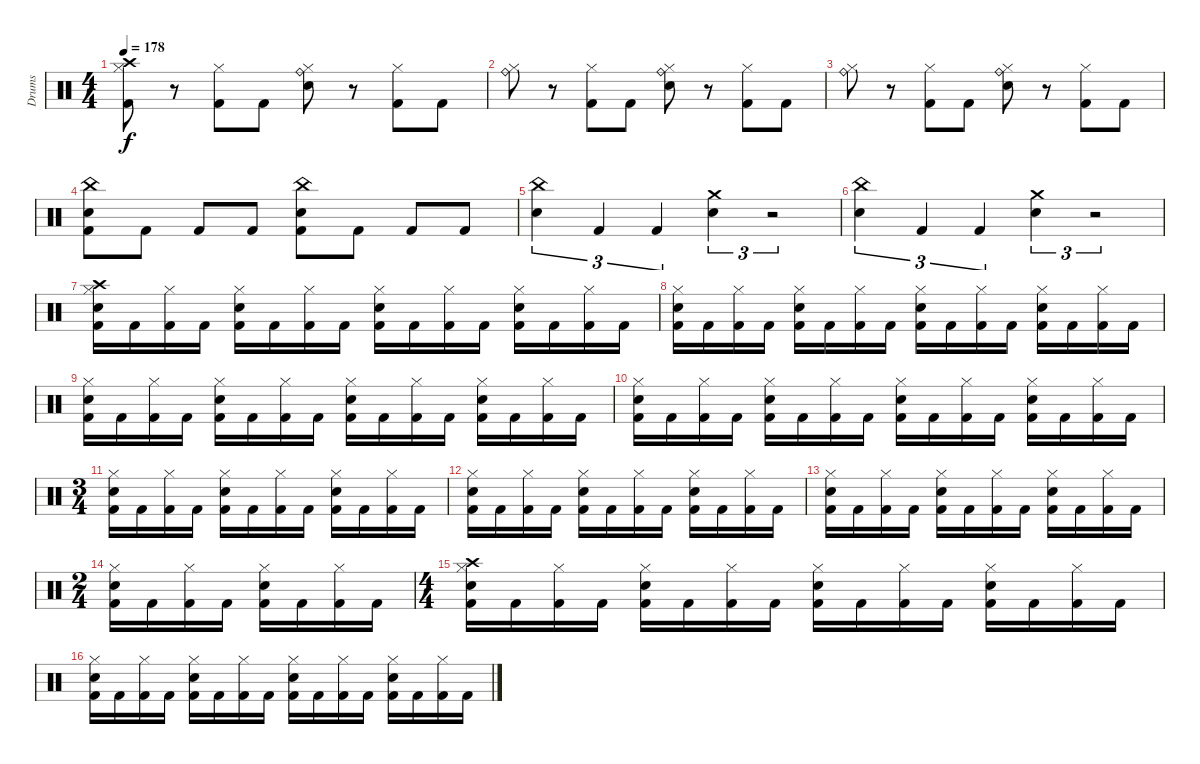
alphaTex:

\track ("Drums" "Drums") {instrument percussion}
\staff {score}
\articulation defaults
\ts (4 4)
\tempo 178
\clef neutral
\ks c
("Kick (hit) 2"{t} "Hi-Hat (closed)" "Crash high (hit)").8{dy f} r.8 ("Kick (hit) 2" "Hi-Hat (closed)").8 "Kick (hit) 2".8 ("Snare (hit) 2" "Hi-Hat (closed)" "Ride (bell)").8 r.8 ("Kick (hit) 2" "Hi-Hat (closed)").8 "Kick (hit) 2".8 |
("Hi-Hat (closed)" "Ride (bell)").8 r.8 ("Kick (hit) 2" "Hi-Hat (closed)").8 "Kick (hit) 2".8 ("Snare (hit) 2" "Hi-Hat (closed)" "Ride (bell)").8 r.8 ("Kick (hit) 2" "Hi-Hat (closed)").8 "Kick (hit) 2".8 |
("Hi-Hat (closed)" "Ride (bell)").8 r.8 ("Kick (hit) 2" "Hi-Hat (closed)").8 "Kick (hit) 2".8 ("Snare (hit) 2" "Hi-Hat (closed)" "Ride (bell)").8 r.8 ("Kick (hit) 2" "Hi-Hat (closed)").8 "Kick (hit) 2".8 |
("Kick (hit) 2" "Snare (hit) 2" "China (hit)").8 "Kick (hit) 2".8 "Kick (hit) 2".8 "Kick (hit) 2".8 ("Kick (hit) 2" "Snare (hit) 2" "China (hit)").8 "Kick (hit) 2".8 "Kick (hit) 2".8 "Kick (hit) 2".8 |
("Snare (hit) 2" "China (hit)").4{tu (3 2)} "Kick (hit) 2".4{tu (3 2)} "Kick (hit) 2".4{tu (3 2)} ("Snare (hit) 2" "Crash medium (hit)").4{tu (3 2)} r.2{tu (3 2)} |
("Snare (hit) 2" "China (hit)").4{tu (3 2)} "Kick (hit) 2".4{tu (3 2)} "Kick (hit) 2".4{tu (3 2)} ("Snare (hit) 2" "Crash medium (hit)").4{tu (3 2)} r.2{tu (3 2)} |
("Kick (hit) 2" "Snare (hit) 2" "Hi-Hat (closed)" "Crash high (hit)").16 "Kick (hit) 2".16 ("Kick (hit) 2" "Hi-Hat (closed)").16 "Kick (hit) 2".16 ("Kick (hit) 2" "Snare (hit) 2" "Hi-Hat (closed)").16 "Kick (hit) 2".16 ("Kick (hit) 2" "Hi-Hat (closed)").16 "Kick (hit) 2".16 ("Kick (hit) 2" "Snare (hit) 2" "Hi-Hat (closed)").16 "Kick (hit) 2".16 ("Kick (hit) 2" "Hi-Hat (closed)").16 "Kick (hit) 2".16 ("Kick (hit) 2" "Snare (hit) 2" "Hi-Hat (closed)").16 "Kick (hit) 2".16 ("Kick (hit) 2" "Hi-Hat (closed)").16 "Kick (hit) 2".16 |
("Kick (hit) 2" "Snare (hit) 2" "Hi-Hat (closed)").16 "Kick (hit) 2".16 ("Kick (hit) 2" "Hi-Hat (closed)").16 "Kick (hit) 2".16 ("Kick (hit) 2" "Snare (hit) 2" "Hi-Hat (closed)").16 "Kick (hit) 2".16 ("Kick (hit) 2" "Hi-Hat (closed)").16 "Kick (hit) 2".16 ("Kick (hit) 2" "Snare (hit) 2" "Hi-Hat (closed)").16 "Kick (hit) 2".16 ("Kick (hit) 2" "Hi-Hat (closed)").16 "Kick (hit) 2".16 ("Kick (hit) 2" "Snare (hit) 2" "Hi-Hat (closed)").16 "Kick (hit) 2".16 ("Kick (hit) 2" "Hi-Hat (closed)").16 "Kick (hit) 2".16 |
("Kick (hit) 2" "Snare (hit) 2" "Hi-Hat (closed)").16 "Kick (hit) 2".16 ("Kick (hit) 2" "Hi-Hat (closed)").16 "Kick (hit) 2".16 ("Kick (hit) 2" "Snare (hit) 2" "Hi-Hat (closed)").16 "Kick (hit) 2".16 ("Kick (hit) 2" "Hi-Hat (closed)").16 "Kick (hit) 2".16 ("Kick (hit) 2" "Snare (hit) 2" "Hi-Hat (closed)").16 "Kick (hit) 2".16 ("Kick (hit) 2" "Hi-Hat (closed)").16 "Kick (hit) 2".16 ("Kick (hit) 2" "Snare (hit) 2" "Hi-Hat (closed)").16 "Kick (hit) 2".16 ("Kick (hit) 2" "Hi-Hat (closed)").16 "Kick (hit) 2".16 |
("Kick (hit) 2" "Snare (hit) 2" "Hi-Hat (closed)").16 "Kick (hit) 2".16 ("Kick (hit) 2" "Hi-Hat (closed)").16 "Kick (hit) 2".16 ("Kick (hit) 2" "Snare (hit) 2" "Hi-Hat (closed)").16 "Kick (hit) 2".16 ("Kick (hit) 2" "Hi-Hat (closed)").16 "Kick (hit) 2".16 ("Kick (hit) 2" "Snare (hit) 2" "Hi-Hat (closed)").16 "Kick (hit) 2".16 ("Kick (hit) 2" "Hi-Hat (closed)").16 "Kick (hit) 2".16 ("Kick (hit) 2" "Snare (hit) 2" "Hi-Hat (closed)").16 "Kick (hit) 2".16 ("Kick (hit) 2" "Hi-Hat (closed)").16 "Kick (hit) 2".16 |
\ts (3 4)
("Kick (hit) 2" "Snare (hit) 2" "Hi-Hat (closed)").16 "Kick (hit) 2".16 ("Kick (hit) 2" "Hi-Hat (closed)").16 "Kick (hit) 2".16 ("Kick (hit) 2" "Snare (hit) 2" "Hi-Hat (closed)").16 "Kick (hit) 2".16 ("Kick (hit) 2" "Hi-Hat (closed)").16 "Kick (hit) 2".16 ("Kick (hit) 2" "Snare (hit) 2" "Hi-Hat (closed)").16 "Kick (hit) 2".16 ("Kick (hit) 2" "Hi-Hat (closed)").16 "Kick (hit) 2".16 |
("Kick (hit) 2" "Snare (hit) 2" "Hi-Hat (closed)").16 "Kick (hit) 2".16 ("Kick (hit) 2" "Hi-Hat (closed)").16 "Kick (hit) 2".16 ("Kick (hit) 2" "Snare (hit) 2" "Hi-Hat (closed)").16 "Kick (hit) 2".16 ("Kick (hit) 2" "Hi-Hat (closed)").16 "Kick (hit) 2".16 ("Kick (hit) 2" "Snare (hit) 2" "Hi-Hat (closed)").16 "Kick (hit) 2".16 ("Kick (hit) 2" "Hi-Hat (closed)").16 "Kick (hit) 2".16 |
("Kick (hit) 2" "Snare (hit) 2" "Hi-Hat (closed)").16 "Kick (hit) 2".16 ("Kick (hit) 2" "Hi-Hat (closed)").16 "Kick (hit) 2".16 ("Kick (hit) 2" "Snare (hit) 2" "Hi-Hat (closed)").16 "Kick (hit) 2".16 ("Kick (hit) 2" "Hi-Hat (closed)").16 "Kick (hit) 2".16 ("Kick (hit) 2" "Snare (hit) 2" "Hi-Hat (closed)").16 "Kick (hit) 2".16 ("Kick (hit) 2" "Hi-Hat (closed)").16 "Kick (hit) 2".16 |
\ts (2 4)
("Kick (hit) 2" "Snare (hit) 2" "Hi-Hat (closed)").16 "Kick (hit) 2".16 ("Kick (hit) 2" "Hi-Hat (closed)").16 "Kick (hit) 2".16 ("Kick (hit) 2" "Snare (hit) 2" "Hi-Hat (closed)").16 "Kick (hit) 2".16 ("Kick (hit) 2" "Hi-Hat (closed)").16 "Kick (hit) 2".16 |
\ts (4 4)
("Kick (hit) 2" "Snare (hit) 2" "Hi-Hat (closed)" "Crash high (hit)").16 "Kick (hit) 2".16 ("Kick (hit) 2" "Hi-Hat (closed)").16 "Kick (hit) 2".16 ("Kick (hit) 2" "Snare (hit) 2" "Hi-Hat (closed)").16 "Kick (hit) 2".16 ("Kick (hit) 2" "Hi-Hat (closed)").16 "Kick (hit) 2".16 ("Kick (hit) 2" "Snare (hit) 2" "Hi-Hat (closed)").16 "Kick (hit) 2".16 ("Kick (hit) 2" "Hi-Hat (closed)").16 "Kick (hit) 2".16 ("Kick (hit) 2" "Snare (hit) 2" "Hi-Hat (closed)").16 "Kick (hit) 2".16 ("Kick (hit) 2" "Hi-Hat (closed)").16 "Kick (hit) 2".16 |
("Kick (hit) 2" "Snare (hit) 2" "Hi-Hat (closed)").16 "Kick (hit) 2".16 ("Kick (hit) 2" "Hi-Hat (closed)").16 "Kick (hit) 2".16 ("Kick (hit) 2" "Snare (hit) 2" "Hi-Hat (closed)").16 "Kick (hit) 2".16 ("Kick (hit) 2" "Hi-Hat (closed)").16 "Kick (hit) 2".16 ("Kick (hit) 2" "Snare (hit) 2" "Hi-Hat (closed)").16 "Kick (hit) 2".16 ("Kick (hit) 2" "Hi-Hat (closed)").16 "Kick (hit) 2".16 ("Kick (hit) 2" "Snare (hit) 2" "Hi-Hat (closed)").16 "Kick (hit) 2".16 ("Kick (hit) 2" "Hi-Hat (closed)").16 "Kick (hit) 2".16
